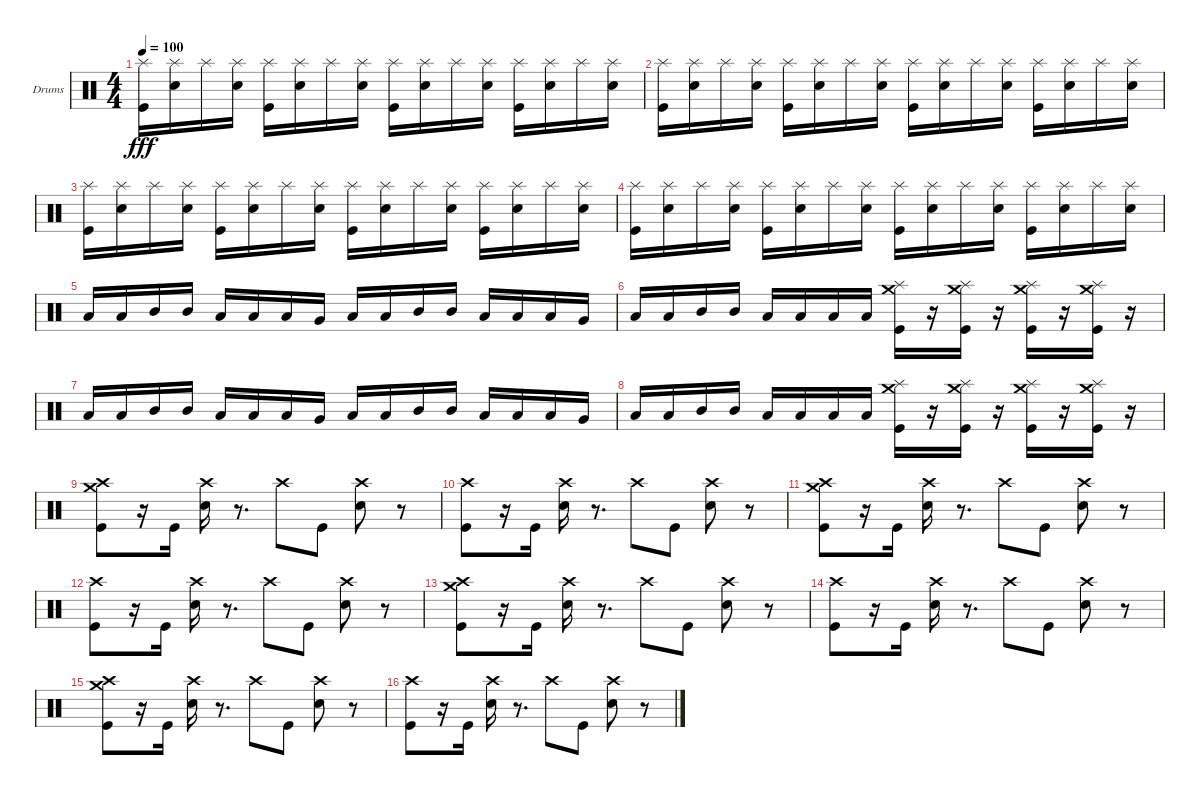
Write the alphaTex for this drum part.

\bracketExtendMode groupsimilarinstruments
\firstSystemTrackNameOrientation horizontal
\otherSystemsTrackNameOrientation horizontal
\track ("Lars Ulrich (Drum)" "Drums") {instrument percussion}
\staff {score}
\articulation defaults
\ts (4 4)
\tempo 100
\clef neutral
\scale
0.333333
\ks c
("Splash (hit)" "Kick (hit)").16{dy fff} ("Splash (hit)" "Snare (hit) 2").16 "Splash (hit)".16 ("Splash (hit)" "Snare (hit) 2").16 ("Splash (hit)" "Kick (hit)").16 ("Splash (hit)" "Snare (hit) 2").16 "Splash (hit)".16 ("Splash (hit)" "Snare (hit) 2").16 ("Splash (hit)" "Kick (hit)").16 ("Splash (hit)" "Snare (hit) 2").16 "Splash (hit)".16 ("Splash (hit)" "Snare (hit) 2").16 ("Splash (hit)" "Kick (hit)").16 ("Splash (hit)" "Snare (hit) 2").16 "Splash (hit)".16 ("Splash (hit)" "Snare (hit) 2").16 |
\scale
0.333333 ("Splash (hit)" "Kick (hit)").16 ("Splash (hit)" "Snare (hit) 2").16 "Splash (hit)".16 ("Splash (hit)" "Snare (hit) 2").16 ("Splash (hit)" "Kick (hit)").16 ("Splash (hit)" "Snare (hit) 2").16 "Splash (hit)".16 ("Splash (hit)" "Snare (hit) 2").16 ("Splash (hit)" "Kick (hit)").16 ("Splash (hit)" "Snare (hit) 2").16 "Splash (hit)".16 ("Splash (hit)" "Snare (hit) 2").16 ("Splash (hit)" "Kick (hit)").16 ("Splash (hit)" "Snare (hit) 2").16 "Splash (hit)".16 ("Splash (hit)" "Snare (hit) 2").16 |
\scale
0.333333 ("Splash (hit)" "Kick (hit)").16 ("Splash (hit)" "Snare (hit) 2").16 "Splash (hit)".16 ("Splash (hit)" "Snare (hit) 2").16 ("Splash (hit)" "Kick (hit)").16 ("Splash (hit)" "Snare (hit) 2").16 "Splash (hit)".16 ("Splash (hit)" "Snare (hit) 2").16 ("Splash (hit)" "Kick (hit)").16 ("Splash (hit)" "Snare (hit) 2").16 "Splash (hit)".16 ("Splash (hit)" "Snare (hit) 2").16 ("Splash (hit)" "Kick (hit)").16 ("Splash (hit)" "Snare (hit) 2").16 "Splash (hit)".16 ("Splash (hit)" "Snare (hit) 2").16 |
\scale
0.333333 ("Splash (hit)" "Kick (hit)").16 ("Splash (hit)" "Snare (hit) 2").16 "Splash (hit)".16 ("Splash (hit)" "Snare (hit) 2").16 ("Splash (hit)" "Kick (hit)").16 ("Splash (hit)" "Snare (hit) 2").16 "Splash (hit)".16 ("Splash (hit)" "Snare (hit) 2").16 ("Splash (hit)" "Kick (hit)").16 ("Splash (hit)" "Snare (hit) 2").16 "Splash (hit)".16 ("Splash (hit)" "Snare (hit) 2").16 ("Splash (hit)" "Kick (hit)").16 ("Splash (hit)" "Snare (hit) 2").16 "Splash (hit)".16 ("Splash (hit)" "Snare (hit) 2").16 |
\scale
0.333333 "Low Tom (hit)".16 "Low Tom (hit)".16 "Mid Tom (hit)".16 "Mid Tom (hit)".16 "Low Tom (hit)".16 "Low Tom (hit)".16 "Low Tom (hit)".16 "Very Low Tom (hit)".16 "Low Tom (hit)".16 "Low Tom (hit)".16 "Mid Tom (hit)".16 "Mid Tom (hit)".16 "Low Tom (hit)".16 "Low Tom (hit)".16 "Low Tom (hit)".16 "Very Low Tom (hit)".16 |
\scale
0.333333 "Low Tom (hit)".16 "Low Tom (hit)".16 "Mid Tom (hit)".16 "Mid Tom (hit)".16 "Low Tom (hit)".16 "Low Tom (hit)".16 "Low Tom (hit)".16 "Low Tom (hit)".16 ("Splash (hit)" "Crash medium (hit)" "Kick (hit)").16 r.16 ("Splash (hit)" "Crash medium (hit)" "Kick (hit)").16 r.16 ("Splash (hit)" "Crash medium (hit)" "Kick (hit)").16 r.16 ("Splash (hit)" "Crash medium (hit)" "Kick (hit)").16 r.16 |
\scale
0.333333 "Low Tom (hit)".16 "Low Tom (hit)".16 "Mid Tom (hit)".16 "Mid Tom (hit)".16 "Low Tom (hit)".16 "Low Tom (hit)".16 "Low Tom (hit)".16 "Very Low Tom (hit)".16 "Low Tom (hit)".16 "Low Tom (hit)".16 "Mid Tom (hit)".16 "Mid Tom (hit)".16 "Low Tom (hit)".16 "Low Tom (hit)".16 "Low Tom (hit)".16 "Very Low Tom (hit)".16 |
\scale
0.333333 "Low Tom (hit)".16 "Low Tom (hit)".16 "Mid Tom (hit)".16 "Mid Tom (hit)".16 "Low Tom (hit)".16 "Low Tom (hit)".16 "Low Tom (hit)".16 "Low Tom (hit)".16 ("Splash (hit)" "Crash medium (hit)" "Kick (hit)").16 r.16 ("Splash (hit)" "Crash medium (hit)" "Kick (hit)").16 r.16 ("Splash (hit)" "Crash medium (hit)" "Kick (hit)").16 r.16 ("Splash (hit)" "Crash medium (hit)" "Kick (hit)").16 r.16 |
\scale
0.333333 ("Crash medium (hit)" "Crash high (hit)" "Kick (hit)").8 r.16 "Kick (hit)".16 ("Crash high (hit)" "Snare (hit) 2").16 r.8{d} "Crash high (hit)".8 "Kick (hit)".8 ("Crash high (hit)" "Snare (hit) 2").8 r.8 |
\scale
0.333333 ("Crash high (hit)" "Kick (hit)").8 r.16 "Kick (hit)".16 ("Crash high (hit)" "Snare (hit) 2").16 r.8{d} "Crash high (hit)".8 "Kick (hit)".8 ("Crash high (hit)" "Snare (hit) 2").8 r.8 |
\scale
0.333333 ("Crash medium (hit)" "Crash high (hit)" "Kick (hit)").8 r.16 "Kick (hit)".16 ("Crash high (hit)" "Snare (hit) 2").16 r.8{d} "Crash high (hit)".8 "Kick (hit)".8 ("Crash high (hit)" "Snare (hit) 2").8 r.8 |
\scale
0.333333 ("Crash high (hit)" "Kick (hit)").8 r.16 "Kick (hit)".16 ("Crash high (hit)" "Snare (hit) 2").16 r.8{d} "Crash high (hit)".8 "Kick (hit)".8 ("Crash high (hit)" "Snare (hit) 2").8 r.8 |
\scale
0.333333 ("Crash medium (hit)" "Crash high (hit)" "Kick (hit)").8 r.16 "Kick (hit)".16 ("Crash high (hit)" "Snare (hit) 2").16 r.8{d} "Crash high (hit)".8 "Kick (hit)".8 ("Crash high (hit)" "Snare (hit) 2").8 r.8 |
\scale
0.333333 ("Crash high (hit)" "Kick (hit)").8 r.16 "Kick (hit)".16 ("Crash high (hit)" "Snare (hit) 2").16 r.8{d} "Crash high (hit)".8 "Kick (hit)".8 ("Crash high (hit)" "Snare (hit) 2").8 r.8 |
\scale
0.333333 ("Crash medium (hit)" "Crash high (hit)" "Kick (hit)").8 r.16 "Kick (hit)".16 ("Crash high (hit)" "Snare (hit) 2").16 r.8{d} "Crash high (hit)".8 "Kick (hit)".8 ("Crash high (hit)" "Snare (hit) 2").8 r.8 |
\scale
0.333333 ("Crash high (hit)" "Kick (hit)").8 r.16 "Kick (hit)".16 ("Crash high (hit)" "Snare (hit) 2").16 r.8{d} "Crash high (hit)".8 "Kick (hit)".8 ("Crash high (hit)" "Snare (hit) 2").8 r.8
